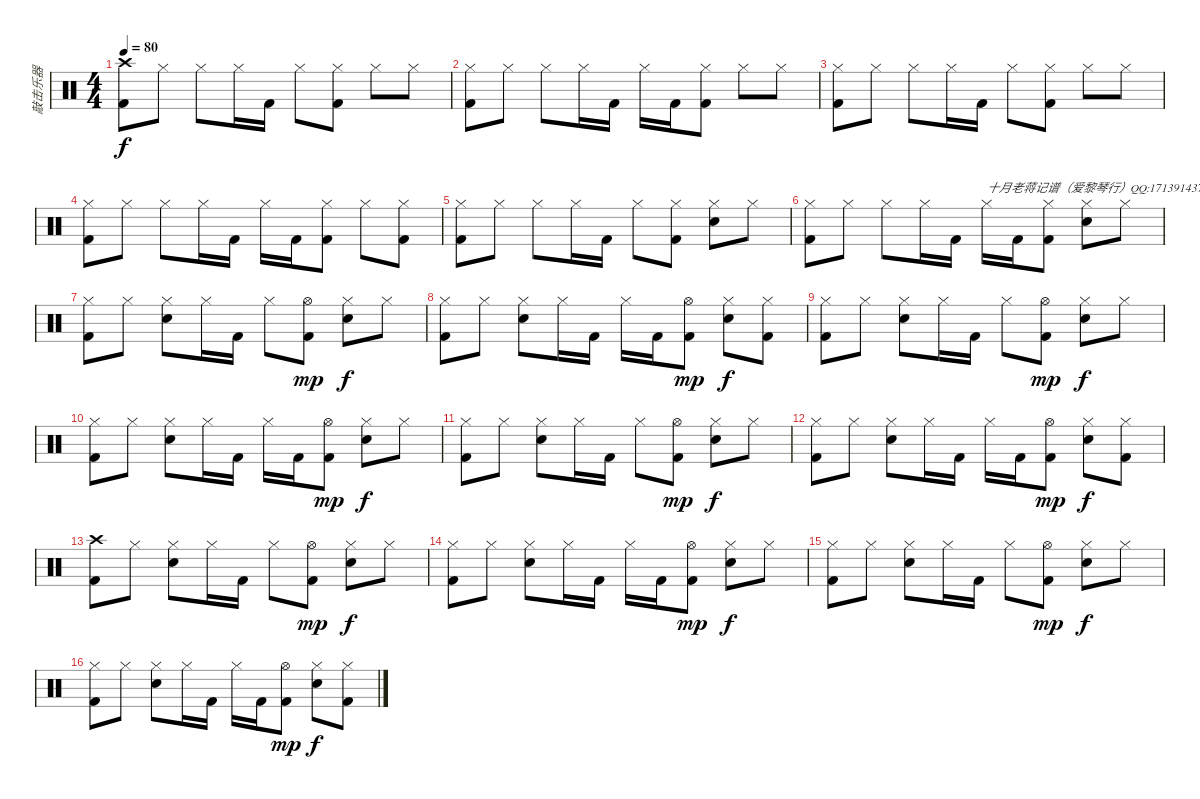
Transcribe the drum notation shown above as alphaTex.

\track ("敲击乐器" "敲击乐器") {instrument percussion}
\staff {score}
\articulation defaults
\ts (4 4)
\tempo 80
\clef neutral
\ks c
("Crash high (hit)" "Kick (hit) 2").8{dy f} "Hi-Hat (closed)".8 "Hi-Hat (closed)".8 "Hi-Hat (closed)".16 "Kick (hit) 2".16 "Hi-Hat (closed)".8 ("Hi-Hat (closed)" "Kick (hit) 2").8 "Hi-Hat (closed)".8 "Hi-Hat (closed)".8 |
("Hi-Hat (closed)" "Kick (hit) 2").8 "Hi-Hat (closed)".8 "Hi-Hat (closed)".8 "Hi-Hat (closed)".16 "Kick (hit) 2".16 "Hi-Hat (closed)".16 "Kick (hit) 2".16 ("Hi-Hat (closed)" "Kick (hit) 2").8 "Hi-Hat (closed)".8 "Hi-Hat (closed)".8 |
("Hi-Hat (closed)" "Kick (hit) 2").8 "Hi-Hat (closed)".8 "Hi-Hat (closed)".8 "Hi-Hat (closed)".16 "Kick (hit) 2".16 "Hi-Hat (closed)".8 ("Hi-Hat (closed)" "Kick (hit) 2").8 "Hi-Hat (closed)".8 "Hi-Hat (closed)".8 |
("Hi-Hat (closed)" "Kick (hit) 2").8 "Hi-Hat (closed)".8 "Hi-Hat (closed)".8 "Hi-Hat (closed)".16 "Kick (hit) 2".16 "Hi-Hat (closed)".16 "Kick (hit) 2".16 ("Hi-Hat (closed)" "Kick (hit) 2").8 "Hi-Hat (closed)".8 ("Hi-Hat (closed)" "Kick (hit) 2").8 |
("Hi-Hat (closed)" "Kick (hit) 2").8 "Hi-Hat (closed)".8 "Hi-Hat (closed)".8 "Hi-Hat (closed)".16 "Kick (hit) 2".16 "Hi-Hat (closed)".8 ("Hi-Hat (closed)" "Kick (hit) 2").8 ("Hi-Hat (closed)" "Electric Snare (hit)").8 "Hi-Hat (closed)".8 |
("Hi-Hat (closed)" "Kick (hit) 2").8 "Hi-Hat (closed)".8 "Hi-Hat (closed)".8 "Hi-Hat (closed)".16 "Kick (hit) 2".16 "Hi-Hat (closed)".16{txt "十月老蒋记谱（爱黎琴行）QQ:1713914374"} "Kick (hit) 2".16 ("Hi-Hat (closed)" "Kick (hit) 2").8 ("Hi-Hat (closed)" "Electric Snare (hit)").8 "Hi-Hat (closed)".8 |
("Hi-Hat (closed)" "Kick (hit) 2").8 "Hi-Hat (closed)".8 ("Hi-Hat (closed)" "Electric Snare (hit)").8 "Hi-Hat (closed)".16 "Kick (hit) 2".16 "Hi-Hat (closed)".8 ("Hi-Hat (open)" "Kick (hit) 2").8{dy mp} ("Hi-Hat (closed)" "Electric Snare (hit)").8{dy f} "Hi-Hat (closed)".8 |
("Hi-Hat (closed)" "Kick (hit) 2").8 "Hi-Hat (closed)".8 ("Hi-Hat (closed)" "Electric Snare (hit)").8 "Hi-Hat (closed)".16 "Kick (hit) 2".16 "Hi-Hat (closed)".16 "Kick (hit) 2".16 ("Hi-Hat (open)" "Kick (hit) 2").8{dy mp} ("Hi-Hat (closed)" "Electric Snare (hit)").8{dy f} ("Hi-Hat (closed)" "Kick (hit) 2").8 |
("Hi-Hat (closed)" "Kick (hit) 2").8 "Hi-Hat (closed)".8 ("Hi-Hat (closed)" "Electric Snare (hit)").8 "Hi-Hat (closed)".16 "Kick (hit) 2".16 "Hi-Hat (closed)".8 ("Hi-Hat (open)" "Kick (hit) 2").8{dy mp} ("Hi-Hat (closed)" "Electric Snare (hit)").8{dy f} "Hi-Hat (closed)".8 |
("Hi-Hat (closed)" "Kick (hit) 2").8 "Hi-Hat (closed)".8 ("Hi-Hat (closed)" "Electric Snare (hit)").8 "Hi-Hat (closed)".16 "Kick (hit) 2".16 "Hi-Hat (closed)".16 "Kick (hit) 2".16 ("Hi-Hat (open)" "Kick (hit) 2").8{dy mp} ("Hi-Hat (closed)" "Electric Snare (hit)").8{dy f} "Hi-Hat (closed)".8 |
("Hi-Hat (closed)" "Kick (hit) 2").8 "Hi-Hat (closed)".8 ("Hi-Hat (closed)" "Electric Snare (hit)").8 "Hi-Hat (closed)".16 "Kick (hit) 2".16 "Hi-Hat (closed)".8 ("Hi-Hat (open)" "Kick (hit) 2").8{dy mp} ("Hi-Hat (closed)" "Electric Snare (hit)").8{dy f} "Hi-Hat (closed)".8 |
("Hi-Hat (closed)" "Kick (hit) 2").8 "Hi-Hat (closed)".8 ("Hi-Hat (closed)" "Electric Snare (hit)").8 "Hi-Hat (closed)".16 "Kick (hit) 2".16 "Hi-Hat (closed)".16 "Kick (hit) 2".16 ("Hi-Hat (open)" "Kick (hit) 2").8{dy mp} ("Hi-Hat (closed)" "Electric Snare (hit)").8{dy f} ("Hi-Hat (closed)" "Kick (hit) 2").8 |
("Crash high (hit)" "Kick (hit) 2").8 "Hi-Hat (closed)".8 ("Hi-Hat (closed)" "Electric Snare (hit)").8 "Hi-Hat (closed)".16 "Kick (hit) 2".16 "Hi-Hat (closed)".8 ("Hi-Hat (open)" "Kick (hit) 2").8{dy mp} ("Hi-Hat (closed)" "Electric Snare (hit)").8{dy f} "Hi-Hat (closed)".8 |
("Hi-Hat (closed)" "Kick (hit) 2").8 "Hi-Hat (closed)".8 ("Hi-Hat (closed)" "Electric Snare (hit)").8 "Hi-Hat (closed)".16 "Kick (hit) 2".16 "Hi-Hat (closed)".16 "Kick (hit) 2".16 ("Hi-Hat (open)" "Kick (hit) 2").8{dy mp} ("Hi-Hat (closed)" "Electric Snare (hit)").8{dy f} "Hi-Hat (closed)".8 |
("Hi-Hat (closed)" "Kick (hit) 2").8 "Hi-Hat (closed)".8 ("Hi-Hat (closed)" "Electric Snare (hit)").8 "Hi-Hat (closed)".16 "Kick (hit) 2".16 "Hi-Hat (closed)".8 ("Hi-Hat (open)" "Kick (hit) 2").8{dy mp} ("Hi-Hat (closed)" "Electric Snare (hit)").8{dy f} "Hi-Hat (closed)".8 |
("Hi-Hat (closed)" "Kick (hit) 2").8 "Hi-Hat (closed)".8 ("Hi-Hat (closed)" "Electric Snare (hit)").8 "Hi-Hat (closed)".16 "Kick (hit) 2".16 "Hi-Hat (closed)".16 "Kick (hit) 2".16 ("Hi-Hat (open)" "Kick (hit) 2").8{dy mp} ("Hi-Hat (closed)" "Electric Snare (hit)").8{dy f} ("Hi-Hat (closed)" "Kick (hit) 2").8
